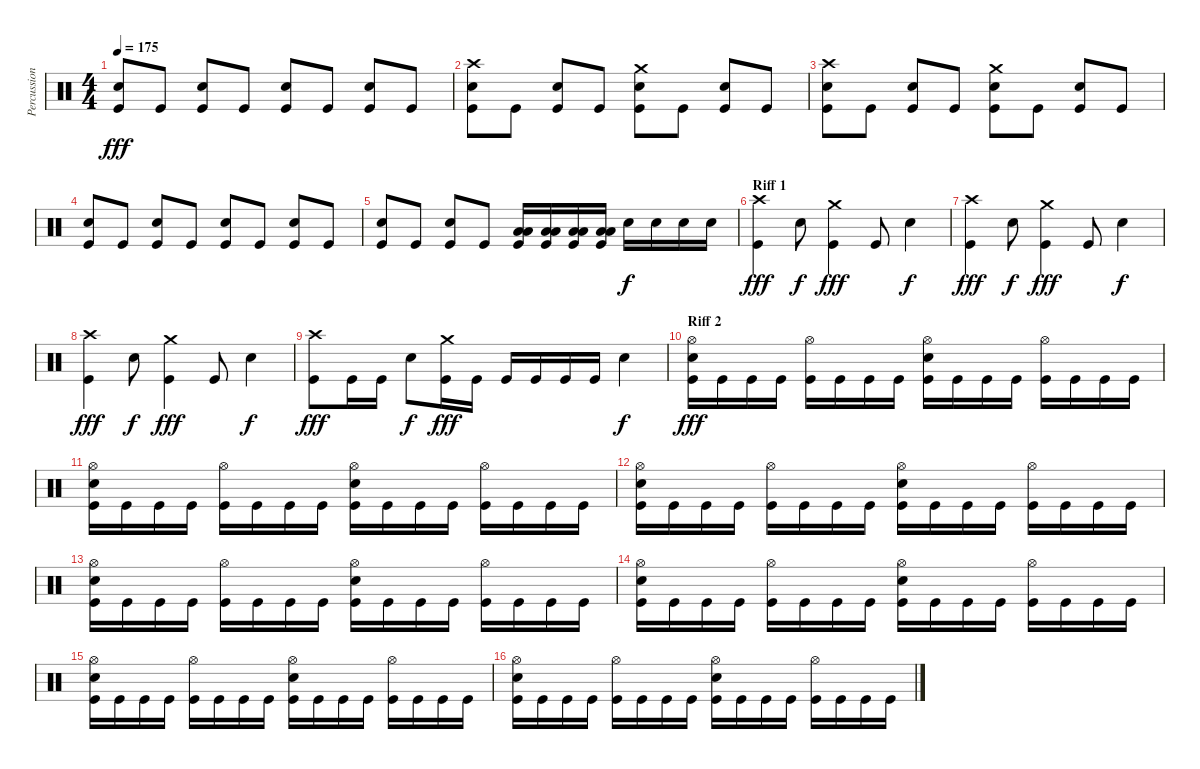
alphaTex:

\track ("Percussions" "Percussion") {instrument percussion}
\staff {score}
\articulation defaults
\ts (4 4)
\tempo 175
\clef neutral
\ks c
("Electric Snare (hit)" "Kick (hit)").8{dy fff} "Kick (hit)".8 ("Electric Snare (hit)" "Kick (hit)").8 "Kick (hit)".8 ("Electric Snare (hit)" "Kick (hit)").8 "Kick (hit)".8 ("Electric Snare (hit)" "Kick (hit)").8 "Kick (hit)".8 |
("Crash high (hit)" "Electric Snare (hit)" "Kick (hit)").8 "Kick (hit)".8 ("Electric Snare (hit)" "Kick (hit)").8 "Kick (hit)".8 ("Crash medium (hit)" "Electric Snare (hit)" "Kick (hit)").8 "Kick (hit)".8 ("Electric Snare (hit)" "Kick (hit)").8 "Kick (hit)".8 |
("Crash high (hit)" "Electric Snare (hit)" "Kick (hit)").8 "Kick (hit)".8 ("Electric Snare (hit)" "Kick (hit)").8 "Kick (hit)".8 ("Crash medium (hit)" "Electric Snare (hit)" "Kick (hit)").8 "Kick (hit)".8 ("Electric Snare (hit)" "Kick (hit)").8 "Kick (hit)".8 |
("Electric Snare (hit)" "Kick (hit)").8 "Kick (hit)".8 ("Electric Snare (hit)" "Kick (hit)").8 "Kick (hit)".8 ("Electric Snare (hit)" "Kick (hit)").8 "Kick (hit)".8 ("Electric Snare (hit)" "Kick (hit)").8 "Kick (hit)".8 |
("Electric Snare (hit)" "Kick (hit)").8 "Kick (hit)".8 ("Electric Snare (hit)" "Kick (hit)").8 "Kick (hit)".8 ("Low Tom (hit)" "Low Floor Tom (hit)" "Kick (hit)").16 ("Low Tom (hit)" "Low Floor Tom (hit)" "Kick (hit)").16 ("Low Tom (hit)" "Low Floor Tom (hit)" "Kick (hit)").16 ("Low Tom (hit)" "Low Floor Tom (hit)" "Kick (hit)").16 "Electric Snare (hit)".16{dy f} "Electric Snare (hit)".16 "Electric Snare (hit)".16 "Electric Snare (hit)".16 |
\section ("" "Riff 1")
("Crash high (hit)" "Kick (hit)").4{dy fff} "Electric Snare (hit)".8{dy f} ("Crash medium (hit)" "Kick (hit)").4{dy fff} "Kick (hit)".8 "Electric Snare (hit)".4{dy f} |
("Crash high (hit)" "Kick (hit)").4{dy fff} "Electric Snare (hit)".8{dy f} ("Crash medium (hit)" "Kick (hit)").4{dy fff} "Kick (hit)".8 "Electric Snare (hit)".4{dy f} |
("Crash high (hit)" "Kick (hit)").4{dy fff} "Electric Snare (hit)".8{dy f} ("Crash medium (hit)" "Kick (hit)").4{dy fff} "Kick (hit)".8 "Electric Snare (hit)".4{dy f} |
("Crash high (hit)" "Kick (hit)").8{dy fff} "Kick (hit)".16 "Kick (hit)".16 "Electric Snare (hit)".8{dy f} ("Crash medium (hit)" "Kick (hit)").16{dy fff} "Kick (hit)".16 "Kick (hit)".16 "Kick (hit)".16 "Kick (hit)".16 "Kick (hit)".16 "Electric Snare (hit)".4{dy f} |
\section ("" "Riff 2")
("Hi-Hat (open)" "Electric Snare (hit)" "Kick (hit)").16{dy fff} "Kick (hit)".16 "Kick (hit)".16 "Kick (hit)".16 ("Hi-Hat (open)" "Kick (hit)").16 "Kick (hit)".16 "Kick (hit)".16 "Kick (hit)".16 ("Hi-Hat (open)" "Electric Snare (hit)" "Kick (hit)").16 "Kick (hit)".16 "Kick (hit)".16 "Kick (hit)".16 ("Hi-Hat (open)" "Kick (hit)").16 "Kick (hit)".16 "Kick (hit)".16 "Kick (hit)".16 |
("Hi-Hat (open)" "Electric Snare (hit)" "Kick (hit)").16 "Kick (hit)".16 "Kick (hit)".16 "Kick (hit)".16 ("Hi-Hat (open)" "Kick (hit)").16 "Kick (hit)".16 "Kick (hit)".16 "Kick (hit)".16 ("Hi-Hat (open)" "Electric Snare (hit)" "Kick (hit)").16 "Kick (hit)".16 "Kick (hit)".16 "Kick (hit)".16 ("Hi-Hat (open)" "Kick (hit)").16 "Kick (hit)".16 "Kick (hit)".16 "Kick (hit)".16 |
("Hi-Hat (open)" "Electric Snare (hit)" "Kick (hit)").16 "Kick (hit)".16 "Kick (hit)".16 "Kick (hit)".16 ("Hi-Hat (open)" "Kick (hit)").16 "Kick (hit)".16 "Kick (hit)".16 "Kick (hit)".16 ("Hi-Hat (open)" "Electric Snare (hit)" "Kick (hit)").16 "Kick (hit)".16 "Kick (hit)".16 "Kick (hit)".16 ("Hi-Hat (open)" "Kick (hit)").16 "Kick (hit)".16 "Kick (hit)".16 "Kick (hit)".16 |
("Hi-Hat (open)" "Electric Snare (hit)" "Kick (hit)").16 "Kick (hit)".16 "Kick (hit)".16 "Kick (hit)".16 ("Hi-Hat (open)" "Kick (hit)").16 "Kick (hit)".16 "Kick (hit)".16 "Kick (hit)".16 ("Hi-Hat (open)" "Electric Snare (hit)" "Kick (hit)").16 "Kick (hit)".16 "Kick (hit)".16 "Kick (hit)".16 ("Hi-Hat (open)" "Kick (hit)").16 "Kick (hit)".16 "Kick (hit)".16 "Kick (hit)".16 |
("Hi-Hat (open)" "Electric Snare (hit)" "Kick (hit)").16 "Kick (hit)".16 "Kick (hit)".16 "Kick (hit)".16 ("Hi-Hat (open)" "Kick (hit)").16 "Kick (hit)".16 "Kick (hit)".16 "Kick (hit)".16 ("Hi-Hat (open)" "Electric Snare (hit)" "Kick (hit)").16 "Kick (hit)".16 "Kick (hit)".16 "Kick (hit)".16 ("Hi-Hat (open)" "Kick (hit)").16 "Kick (hit)".16 "Kick (hit)".16 "Kick (hit)".16 |
("Hi-Hat (open)" "Electric Snare (hit)" "Kick (hit)").16 "Kick (hit)".16 "Kick (hit)".16 "Kick (hit)".16 ("Hi-Hat (open)" "Kick (hit)").16 "Kick (hit)".16 "Kick (hit)".16 "Kick (hit)".16 ("Hi-Hat (open)" "Electric Snare (hit)" "Kick (hit)").16 "Kick (hit)".16 "Kick (hit)".16 "Kick (hit)".16 ("Hi-Hat (open)" "Kick (hit)").16 "Kick (hit)".16 "Kick (hit)".16 "Kick (hit)".16 |
("Hi-Hat (open)" "Electric Snare (hit)" "Kick (hit)").16 "Kick (hit)".16 "Kick (hit)".16 "Kick (hit)".16 ("Hi-Hat (open)" "Kick (hit)").16 "Kick (hit)".16 "Kick (hit)".16 "Kick (hit)".16 ("Hi-Hat (open)" "Electric Snare (hit)" "Kick (hit)").16 "Kick (hit)".16 "Kick (hit)".16 "Kick (hit)".16 ("Hi-Hat (open)" "Kick (hit)").16 "Kick (hit)".16 "Kick (hit)".16 "Kick (hit)".16
